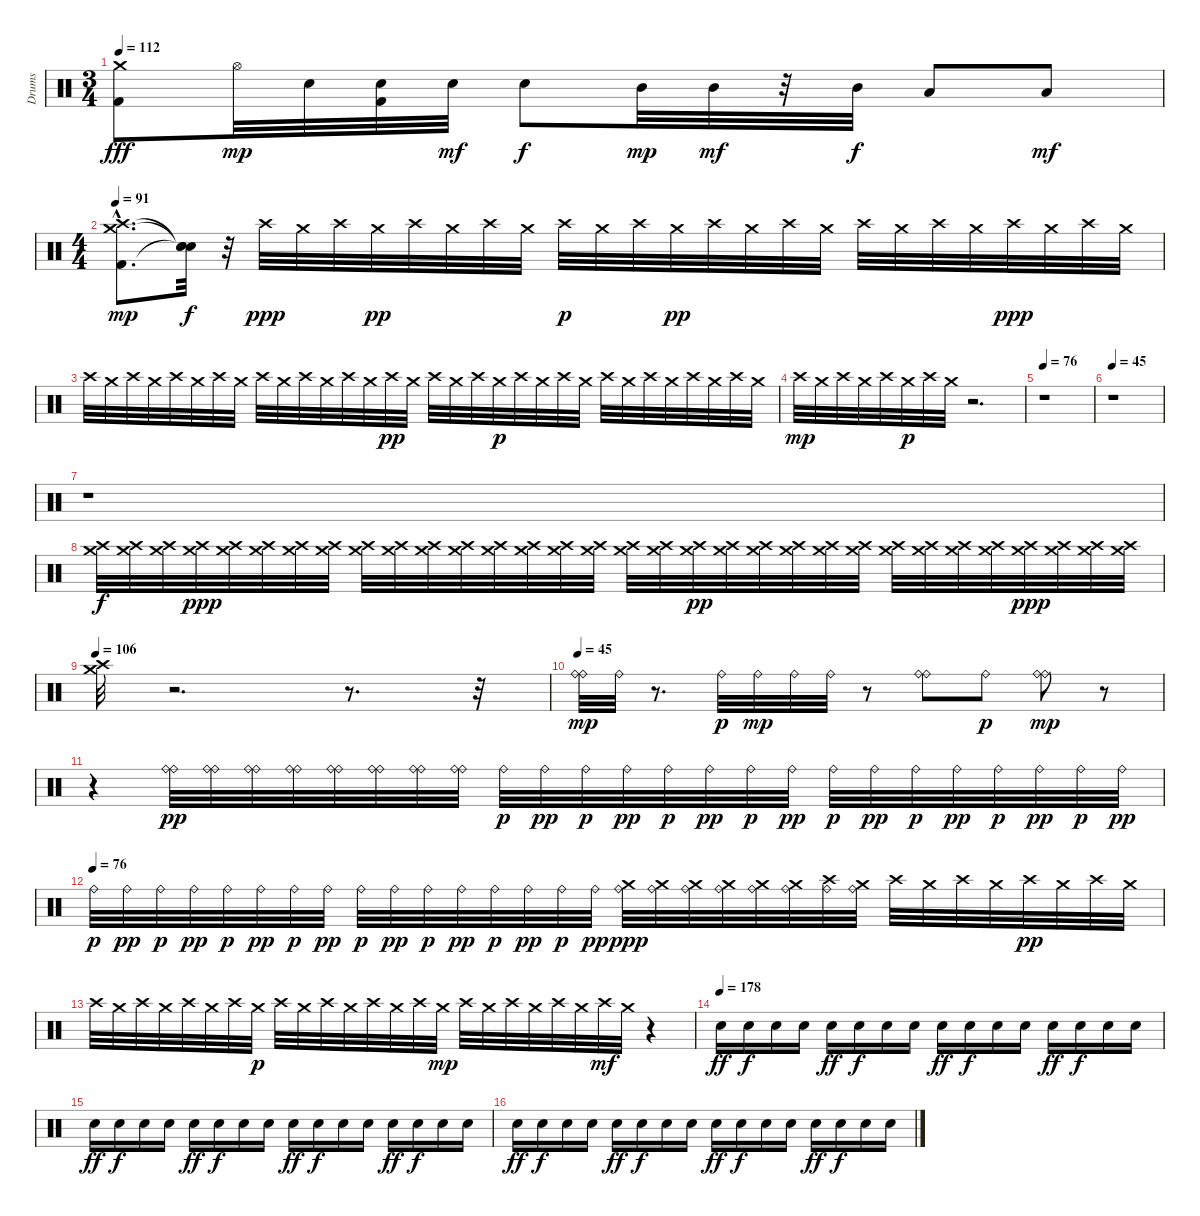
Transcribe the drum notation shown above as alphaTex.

\track ("Drums" "Drums") {instrument percussion}
\staff {score}
\articulation defaults
\ts (3 4)
\tempo 112
\clef neutral
\ks c
("Crash medium (hit)" "Kick (hit) 2").8{dy fff} "Hi-Hat (open)".32{dy mp} "Snare (hit) 2".32 ("Kick (hit) 2" "Snare (hit) 2").32 "Snare (hit) 2".32{dy mf} "Snare (hit) 2".8{dy f} "Mid Tom (hit)".32{dy mp} "Mid Tom (hit)".32{dy mf} r.32 "Mid Tom (hit)".32{dy f} "Low Tom (hit)".8 "Low Tom (hit)".8{dy mf} |
\ts (4 4)
\tempo 91
("Kick (hit) 2"{hac} "Crash high (hit)"{hac} "Crash medium (hit)"{hac}).8{d dy mp} ("Snare (hit)"{t} "Snare (hit)"{t} "Snare (hit)"{t}).32{dy f} r.32 "Crash high (hit)".32{dy ppp} "Crash medium (hit)".32 "Crash high (hit)".32 "Crash medium (hit)".32{dy pp} "Crash high (hit)".32 "Crash medium (hit)".32 "Crash high (hit)".32 "Crash medium (hit)".32 "Crash high (hit)".32{dy p} "Crash medium (hit)".32 "Crash high (hit)".32 "Crash medium (hit)".32{dy pp} "Crash high (hit)".32 "Crash medium (hit)".32 "Crash high (hit)".32 "Crash medium (hit)".32 "Crash high (hit)".32 "Crash medium (hit)".32 "Crash high (hit)".32 "Crash medium (hit)".32 "Crash high (hit)".32{dy ppp} "Crash medium (hit)".32 "Crash high (hit)".32 "Crash medium (hit)".32 |
"Crash high (hit)".32 "Crash medium (hit)".32 "Crash high (hit)".32 "Crash medium (hit)".32 "Crash high (hit)".32 "Crash medium (hit)".32 "Crash high (hit)".32 "Crash medium (hit)".32 "Crash high (hit)".32 "Crash medium (hit)".32 "Crash high (hit)".32 "Crash medium (hit)".32 "Crash high (hit)".32 "Crash medium (hit)".32 "Crash high (hit)".32{dy pp} "Crash medium (hit)".32 "Crash high (hit)".32 "Crash medium (hit)".32 "Crash high (hit)".32 "Crash medium (hit)".32{dy p} "Crash high (hit)".32 "Crash medium (hit)".32 "Crash high (hit)".32 "Crash medium (hit)".32 "Crash high (hit)".32 "Crash medium (hit)".32 "Crash high (hit)".32 "Crash medium (hit)".32 "Crash high (hit)".32 "Crash medium (hit)".32 "Crash high (hit)".32 "Crash medium (hit)".32 |
"Crash high (hit)".32{dy mp} "Crash medium (hit)".32 "Crash high (hit)".32 "Crash medium (hit)".32 "Crash high (hit)".32 "Crash medium (hit)".32{dy p} "Crash high (hit)".32 "Crash medium (hit)".32 r.2{d} |
\tempo 76
r.1 |
\tempo 45
r.1 |
r.1 |
("Crash high (hit)" "Crash medium (hit)").32{dy f} ("Crash high (hit)" "Crash medium (hit)").32 ("Crash high (hit)" "Crash medium (hit)").32 ("Crash high (hit)" "Crash medium (hit)").32{dy ppp} ("Crash high (hit)" "Crash medium (hit)").32 ("Crash high (hit)" "Crash medium (hit)").32 ("Crash high (hit)" "Crash medium (hit)").32 ("Crash high (hit)" "Crash medium (hit)").32 ("Crash high (hit)" "Crash medium (hit)").32 ("Crash high (hit)" "Crash medium (hit)").32 ("Crash high (hit)" "Crash medium (hit)").32 ("Crash high (hit)" "Crash medium (hit)").32 ("Crash high (hit)" "Crash medium (hit)").32 ("Crash high (hit)" "Crash medium (hit)").32 ("Crash high (hit)" "Crash medium (hit)").32 ("Crash high (hit)" "Crash medium (hit)").32 ("Crash high (hit)" "Crash medium (hit)").32 ("Crash high (hit)" "Crash medium (hit)").32 ("Crash high (hit)" "Crash medium (hit)").32{dy pp} ("Crash high (hit)" "Crash medium (hit)").32 ("Crash high (hit)" "Crash medium (hit)").32 ("Crash high (hit)" "Crash medium (hit)").32 ("Crash high (hit)" "Crash medium (hit)").32 ("Crash high (hit)" "Crash medium (hit)").32 ("Crash high (hit)" "Crash medium (hit)").32 ("Crash high (hit)" "Crash medium (hit)").32 ("Crash high (hit)" "Crash medium (hit)").32 ("Crash high (hit)" "Crash medium (hit)").32 ("Crash high (hit)" "Crash medium (hit)").32{dy ppp} ("Crash high (hit)" "Crash medium (hit)").32 ("Crash high (hit)" "Crash medium (hit)").32 ("Crash high (hit)" "Crash medium (hit)").32 |
\tempo 106
("Crash high (hit)" "Crash medium (hit)").32 r.2{d} r.8{d} r.32 |
\tempo 45
("Ride (bell)" "Ride (bell)").32{dy mp} "Ride (bell)".32 r.8{d} "Ride (bell)".32{dy p} "Ride (bell)".32{dy mp} "Ride (bell)".32 "Ride (bell)".32 r.8 ("Ride (bell)" "Ride (bell)").8 "Ride (bell)".8{dy p} ("Ride (bell)" "Ride (bell)").8{dy mp} r.8 |
r.4 ("Ride (bell)" "Ride (bell)").32{dy pp} ("Ride (bell)" "Ride (bell)").32 ("Ride (bell)" "Ride (bell)").32 ("Ride (bell)" "Ride (bell)").32 ("Ride (bell)" "Ride (bell)").32 ("Ride (bell)" "Ride (bell)").32 ("Ride (bell)" "Ride (bell)").32 ("Ride (bell)" "Ride (bell)").32 "Ride (bell)".32{dy p} "Ride (bell)".32{dy pp} "Ride (bell)".32{dy p} "Ride (bell)".32{dy pp} "Ride (bell)".32{dy p} "Ride (bell)".32{dy pp} "Ride (bell)".32{dy p} "Ride (bell)".32{dy pp} "Ride (bell)".32{dy p} "Ride (bell)".32{dy pp} "Ride (bell)".32{dy p} "Ride (bell)".32{dy pp} "Ride (bell)".32{dy p} "Ride (bell)".32{dy pp} "Ride (bell)".32{dy p} "Ride (bell)".32{dy pp} |
\tempo (76)
"Ride (bell)".32{dy p} "Ride (bell)".32{dy pp} "Ride (bell)".32{dy p} "Ride (bell)".32{dy pp} "Ride (bell)".32{dy p} "Ride (bell)".32{dy pp} "Ride (bell)".32{dy p} "Ride (bell)".32{dy pp} "Ride (bell)".32{dy p} "Ride (bell)".32{dy pp} "Ride (bell)".32{dy p} "Ride (bell)".32{dy pp} "Ride (bell)".32{dy p} "Ride (bell)".32{dy pp} "Ride (bell)".32{dy p} "Ride (bell)".32{dy pp} ("Ride (bell)" "Crash medium (hit)").32{dy ppp} ("Ride (bell)" "Crash medium (hit)").32 ("Ride (bell)" "Crash medium (hit)").32 ("Ride (bell)" "Crash medium (hit)").32 ("Ride (bell)" "Crash medium (hit)").32 ("Ride (bell)" "Crash medium (hit)").32 ("Ride (bell)" "Crash high (hit)").32 ("Ride (bell)" "Crash medium (hit)").32 "Crash high (hit)".32 "Crash medium (hit)".32 "Crash high (hit)".32 "Crash medium (hit)".32 "Crash high (hit)".32{dy pp} "Crash medium (hit)".32 "Crash high (hit)".32 "Crash medium (hit)".32 |
"Crash high (hit)".32 "Crash medium (hit)".32 "Crash high (hit)".32 "Crash medium (hit)".32 "Crash high (hit)".32 "Crash medium (hit)".32 "Crash high (hit)".32 "Crash medium (hit)".32{dy p} "Crash high (hit)".32 "Crash medium (hit)".32 "Crash high (hit)".32 "Crash medium (hit)".32 "Crash high (hit)".32 "Crash medium (hit)".32 "Crash high (hit)".32 "Crash medium (hit)".32{dy mp} "Crash high (hit)".32 "Crash medium (hit)".32 "Crash high (hit)".32 "Crash medium (hit)".32 "Crash high (hit)".32 "Crash medium (hit)".32 "Crash high (hit)".32{dy mf} "Crash medium (hit)".32 r.4 |
\tempo (178)
"Snare (hit) 2".16{dy ff} "Snare (hit) 2".16{dy f} "Snare (hit) 2".16 "Snare (hit) 2".16 "Snare (hit) 2".16{dy ff} "Snare (hit) 2".16{dy f} "Snare (hit) 2".16 "Snare (hit) 2".16 "Snare (hit) 2".16{dy ff} "Snare (hit) 2".16{dy f} "Snare (hit) 2".16 "Snare (hit) 2".16 "Snare (hit) 2".16{dy ff} "Snare (hit) 2".16{dy f} "Snare (hit) 2".16 "Snare (hit) 2".16 |
"Snare (hit) 2".16{dy ff} "Snare (hit) 2".16{dy f} "Snare (hit) 2".16 "Snare (hit) 2".16 "Snare (hit) 2".16{dy ff} "Snare (hit) 2".16{dy f} "Snare (hit) 2".16 "Snare (hit) 2".16 "Snare (hit) 2".16{dy ff} "Snare (hit) 2".16{dy f} "Snare (hit) 2".16 "Snare (hit) 2".16 "Snare (hit) 2".16{dy ff} "Snare (hit) 2".16{dy f} "Snare (hit) 2".16 "Snare (hit) 2".16 |
"Snare (hit) 2".16{dy ff} "Snare (hit) 2".16{dy f} "Snare (hit) 2".16 "Snare (hit) 2".16 "Snare (hit) 2".16{dy ff} "Snare (hit) 2".16{dy f} "Snare (hit) 2".16 "Snare (hit) 2".16 "Snare (hit) 2".16{dy ff} "Snare (hit) 2".16{dy f} "Snare (hit) 2".16 "Snare (hit) 2".16 "Snare (hit) 2".16{dy ff} "Snare (hit) 2".16{dy f} "Snare (hit) 2".16 "Snare (hit) 2".16
